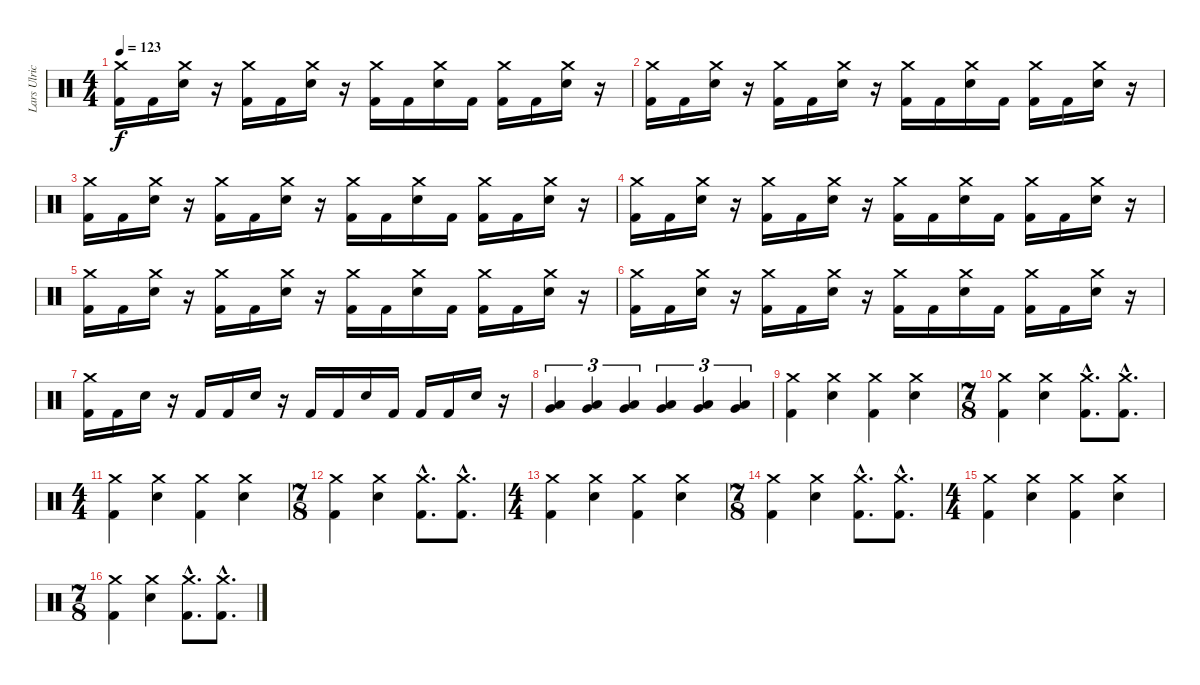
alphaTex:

\track ("Lars Ulrich" "Lars Ulric") {instrument percussion}
\staff {score}
\articulation defaults
\ts (4 4)
\tempo 123
\clef neutral
\ks c
("Crash medium (hit)" "Kick (hit) 2").16{dy f} "Kick (hit) 2".16 ("Crash medium (hit)" "Electric Snare (hit)").16 r.16 ("Crash medium (hit)" "Kick (hit) 2").16 "Kick (hit) 2".16 ("Crash medium (hit)" "Electric Snare (hit)").16 r.16 ("Crash medium (hit)" "Kick (hit) 2").16 "Kick (hit) 2".16 ("Crash medium (hit)" "Electric Snare (hit)").16 "Kick (hit) 2".16 ("Crash medium (hit)" "Kick (hit) 2").16 "Kick (hit) 2".16 ("Crash medium (hit)" "Electric Snare (hit)").16 r.16 |
("Crash medium (hit)" "Kick (hit) 2").16 "Kick (hit) 2".16 ("Crash medium (hit)" "Electric Snare (hit)").16 r.16 ("Crash medium (hit)" "Kick (hit) 2").16 "Kick (hit) 2".16 ("Crash medium (hit)" "Electric Snare (hit)").16 r.16 ("Crash medium (hit)" "Kick (hit) 2").16 "Kick (hit) 2".16 ("Crash medium (hit)" "Electric Snare (hit)").16 "Kick (hit) 2".16 ("Crash medium (hit)" "Kick (hit) 2").16 "Kick (hit) 2".16 ("Crash medium (hit)" "Electric Snare (hit)").16 r.16 |
("Crash medium (hit)" "Kick (hit) 2").16 "Kick (hit) 2".16 ("Crash medium (hit)" "Electric Snare (hit)").16 r.16 ("Crash medium (hit)" "Kick (hit) 2").16 "Kick (hit) 2".16 ("Crash medium (hit)" "Electric Snare (hit)").16 r.16 ("Crash medium (hit)" "Kick (hit) 2").16 "Kick (hit) 2".16 ("Crash medium (hit)" "Electric Snare (hit)").16 "Kick (hit) 2".16 ("Crash medium (hit)" "Kick (hit) 2").16 "Kick (hit) 2".16 ("Crash medium (hit)" "Electric Snare (hit)").16 r.16 |
("Crash medium (hit)" "Kick (hit) 2").16 "Kick (hit) 2".16 ("Crash medium (hit)" "Electric Snare (hit)").16 r.16 ("Crash medium (hit)" "Kick (hit) 2").16 "Kick (hit) 2".16 ("Crash medium (hit)" "Electric Snare (hit)").16 r.16 ("Crash medium (hit)" "Kick (hit) 2").16 "Kick (hit) 2".16 ("Crash medium (hit)" "Electric Snare (hit)").16 "Kick (hit) 2".16 ("Crash medium (hit)" "Kick (hit) 2").16 "Kick (hit) 2".16 ("Crash medium (hit)" "Electric Snare (hit)").16 r.16 |
("Crash medium (hit)" "Kick (hit) 2").16 "Kick (hit) 2".16 ("Crash medium (hit)" "Electric Snare (hit)").16 r.16 ("Crash medium (hit)" "Kick (hit) 2").16 "Kick (hit) 2".16 ("Crash medium (hit)" "Electric Snare (hit)").16 r.16 ("Crash medium (hit)" "Kick (hit) 2").16 "Kick (hit) 2".16 ("Crash medium (hit)" "Electric Snare (hit)").16 "Kick (hit) 2".16 ("Crash medium (hit)" "Kick (hit) 2").16 "Kick (hit) 2".16 ("Crash medium (hit)" "Electric Snare (hit)").16 r.16 |
("Crash medium (hit)" "Kick (hit) 2").16 "Kick (hit) 2".16 ("Crash medium (hit)" "Electric Snare (hit)").16 r.16 ("Crash medium (hit)" "Kick (hit) 2").16 "Kick (hit) 2".16 ("Crash medium (hit)" "Electric Snare (hit)").16 r.16 ("Crash medium (hit)" "Kick (hit) 2").16 "Kick (hit) 2".16 ("Crash medium (hit)" "Electric Snare (hit)").16 "Kick (hit) 2".16 ("Crash medium (hit)" "Kick (hit) 2").16 "Kick (hit) 2".16 ("Crash medium (hit)" "Electric Snare (hit)").16 r.16 |
("Crash medium (hit)" "Kick (hit) 2").16 "Kick (hit) 2".16 "Electric Snare (hit)".16 r.16 "Kick (hit) 2".16 "Kick (hit) 2".16 "Electric Snare (hit)".16 r.16 "Kick (hit) 2".16 "Kick (hit) 2".16 "Electric Snare (hit)".16 "Kick (hit) 2".16 "Kick (hit) 2".16 "Kick (hit) 2".16 "Electric Snare (hit)".16 r.16 |
("Low Floor Tom (hit)" "Very Low Tom (hit)").4{tu (3 2)} ("Low Floor Tom (hit)" "Very Low Tom (hit)").4{tu (3 2)} ("Low Floor Tom (hit)" "Very Low Tom (hit)").4{tu (3 2)} ("Low Floor Tom (hit)" "Very Low Tom (hit)").4{tu (3 2)} ("Low Floor Tom (hit)" "Very Low Tom (hit)").4{tu (3 2)} ("Low Floor Tom (hit)" "Very Low Tom (hit)").4{tu (3 2)} |
("Crash medium (hit)" "Kick (hit) 2").4 ("Crash medium (hit)" "Electric Snare (hit)").4 ("Crash medium (hit)" "Kick (hit) 2").4 ("Crash medium (hit)" "Electric Snare (hit)").4 |
\ts (7 8)
("Crash medium (hit)" "Kick (hit) 2").4 ("Crash medium (hit)" "Electric Snare (hit)").4 ("Crash medium (hit)"{hac} "Kick (hit) 2"{hac}).8{d} ("Crash medium (hit)"{hac} "Kick (hit) 2"{hac}).8{d} |
\ts (4 4)
("Crash medium (hit)" "Kick (hit) 2").4 ("Crash medium (hit)" "Electric Snare (hit)").4 ("Crash medium (hit)" "Kick (hit) 2").4 ("Crash medium (hit)" "Electric Snare (hit)").4 |
\ts (7 8)
("Crash medium (hit)" "Kick (hit) 2").4 ("Crash medium (hit)" "Electric Snare (hit)").4 ("Crash medium (hit)"{hac} "Kick (hit) 2"{hac}).8{d} ("Crash medium (hit)"{hac} "Kick (hit) 2"{hac}).8{d} |
\ts (4 4)
("Crash medium (hit)" "Kick (hit) 2").4 ("Crash medium (hit)" "Electric Snare (hit)").4 ("Crash medium (hit)" "Kick (hit) 2").4 ("Crash medium (hit)" "Electric Snare (hit)").4 |
\ts (7 8)
("Crash medium (hit)" "Kick (hit) 2").4 ("Crash medium (hit)" "Electric Snare (hit)").4 ("Crash medium (hit)"{hac} "Kick (hit) 2"{hac}).8{d} ("Crash medium (hit)"{hac} "Kick (hit) 2"{hac}).8{d} |
\ts (4 4)
("Crash medium (hit)" "Kick (hit) 2").4 ("Crash medium (hit)" "Electric Snare (hit)").4 ("Crash medium (hit)" "Kick (hit) 2").4 ("Crash medium (hit)" "Electric Snare (hit)").4 |
\ts (7 8)
("Crash medium (hit)" "Kick (hit) 2").4 ("Crash medium (hit)" "Electric Snare (hit)").4 ("Crash medium (hit)"{hac} "Kick (hit) 2"{hac}).8{d} ("Crash medium (hit)"{hac} "Kick (hit) 2"{hac}).8{d}
